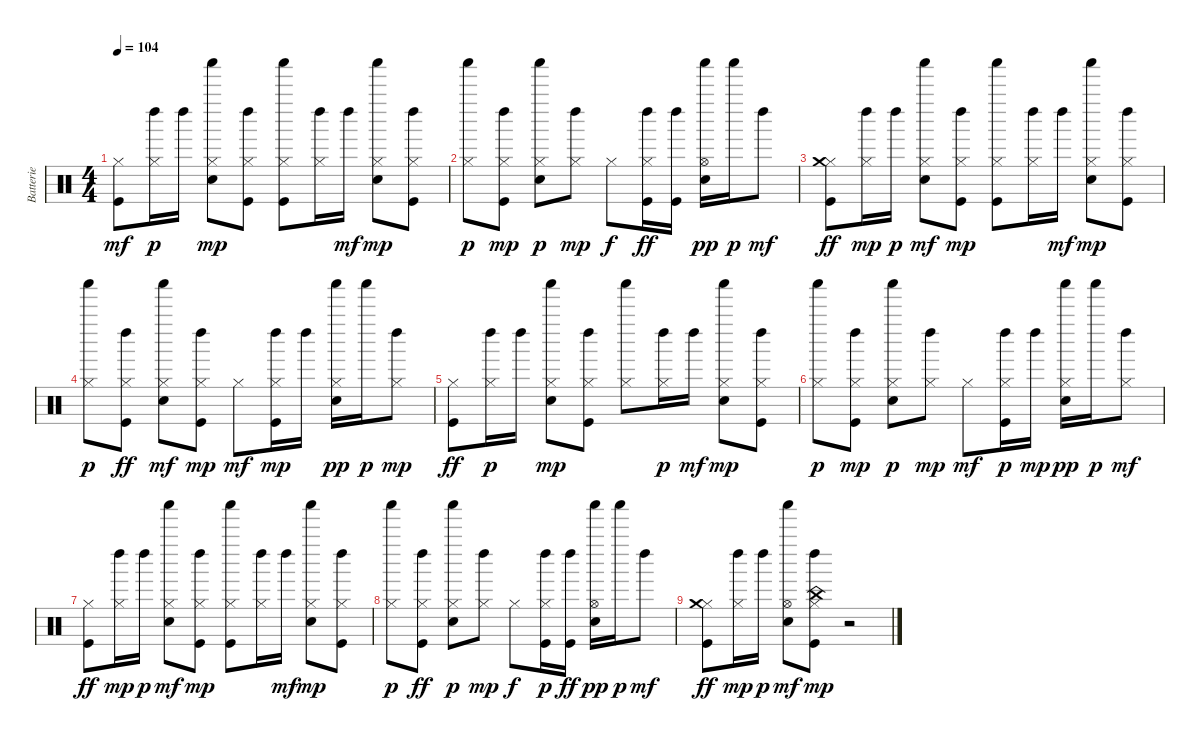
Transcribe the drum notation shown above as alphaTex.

\track ("Batterie" "Batterie") {instrument percussion}
\staff {score}
\articulation defaults
\ts (4 4)
\tempo 104
\clef neutral
\ks c
("Kick (hit)" "Hi-Hat (closed)").8{dy mf} ("Left Maraca (hit)" "Hi-Hat (closed)").16{dy p} "Left Maraca (hit)".16 ("Electric Snare (hit)" "Hi-Hat (closed)" "Shaker (hit)").8{dy mp} ("Hi-Hat (closed)" "Left Maraca (hit)" "Kick (hit)").8 ("Kick (hit)" "Shaker (hit)" "Hi-Hat (closed)").8 ("Hi-Hat (closed)" "Left Maraca (hit)").16 "Left Maraca (hit)".16{dy mf} ("Hi-Hat (closed)" "Shaker (hit)" "Electric Snare (hit)").8{dy mp} ("Hi-Hat (closed)" "Kick (hit)" "Left Maraca (hit)").8 |
("Hi-Hat (closed)" "Shaker (hit)").8{dy p} ("Hi-Hat (closed)" "Kick (hit)" "Left Maraca (hit)").8{dy mp} ("Electric Snare (hit)" "Hi-Hat (closed)" "Shaker (hit)").8{dy p} ("Hi-Hat (closed)" "Left Maraca (hit)").8{dy mp} "Hi-Hat (closed)".8{dy f} ("Left Maraca (hit)" "Hi-Hat (closed)" "Kick (hit)").16{dy ff} ("Left Maraca (hit)" "Kick (hit)").16 ("Hi-Hat (open)" "Electric Snare (hit)" "Shaker (hit)").16{dy pp} "Shaker (hit)".16{dy p} "Left Maraca (hit)".8{dy mf} |
("Hi-Hat (closed)" "Crash medium (hit)" "Kick (hit)").8{dy ff} ("Hi-Hat (closed)" "Left Maraca (hit)").16{dy mp} "Left Maraca (hit)".16{dy p} ("Electric Snare (hit)" "Shaker (hit)" "Hi-Hat (closed)").8{dy mf} ("Kick (hit)" "Left Maraca (hit)" "Hi-Hat (closed)").8{dy mp} ("Hi-Hat (closed)" "Kick (hit)" "Shaker (hit)").8 ("Hi-Hat (closed)" "Left Maraca (hit)").16 "Left Maraca (hit)".16{dy mf} ("Electric Snare (hit)" "Hi-Hat (closed)" "Shaker (hit)").8{dy mp} ("Left Maraca (hit)" "Hi-Hat (closed)" "Kick (hit)").8 |
("Hi-Hat (closed)" "Shaker (hit)").8{dy p} ("Left Maraca (hit)" "Hi-Hat (closed)" "Kick (hit)").8{dy ff} ("Shaker (hit)" "Hi-Hat (closed)" "Electric Snare (hit)").8{dy mf} ("Hi-Hat (closed)" "Kick (hit)" "Left Maraca (hit)").8{dy mp} "Hi-Hat (closed)".8{dy mf} ("Hi-Hat (closed)" "Kick (hit)" "Left Maraca (hit)").16{dy mp} "Left Maraca (hit)".16 ("Electric Snare (hit)" "Hi-Hat (closed)" "Shaker (hit)").16{dy pp} "Shaker (hit)".16{dy p} ("Left Maraca (hit)" "Hi-Hat (closed)").8{dy mp} |
("Hi-Hat (closed)" "Kick (hit)").8{dy ff} ("Left Maraca (hit)" "Hi-Hat (closed)").16{dy p} "Left Maraca (hit)".16 ("Hi-Hat (closed)" "Electric Snare (hit)" "Shaker (hit)").8{dy mp} ("Kick (hit)" "Hi-Hat (closed)" "Left Maraca (hit)").8 ("Hi-Hat (closed)" "Shaker (hit)").8 ("Left Maraca (hit)" "Hi-Hat (closed)").16{dy p} "Left Maraca (hit)".16{dy mf} ("Hi-Hat (closed)" "Shaker (hit)" "Electric Snare (hit)").8{dy mp} ("Left Maraca (hit)" "Kick (hit)" "Hi-Hat (closed)").8 |
("Hi-Hat (closed)" "Shaker (hit)").8{dy p} ("Hi-Hat (closed)" "Kick (hit)" "Left Maraca (hit)").8{dy mp} ("Electric Snare (hit)" "Hi-Hat (closed)" "Shaker (hit)").8{dy p} ("Hi-Hat (closed)" "Left Maraca (hit)").8{dy mp} "Hi-Hat (closed)".8{dy mf} ("Left Maraca (hit)" "Hi-Hat (closed)" "Kick (hit)").16{dy p} "Left Maraca (hit)".16{dy mp} ("Hi-Hat (closed)" "Electric Snare (hit)" "Shaker (hit)").16{dy pp} "Shaker (hit)".16{dy p} ("Hi-Hat (closed)" "Left Maraca (hit)").8{dy mf} |
("Hi-Hat (closed)" "Kick (hit)").8{dy ff} ("Hi-Hat (closed)" "Left Maraca (hit)").16{dy mp} "Left Maraca (hit)".16{dy p} ("Shaker (hit)" "Electric Snare (hit)" "Hi-Hat (closed)").8{dy mf} ("Kick (hit)" "Left Maraca (hit)" "Hi-Hat (closed)").8{dy mp} ("Kick (hit)" "Hi-Hat (closed)" "Shaker (hit)").8 ("Hi-Hat (closed)" "Left Maraca (hit)").16 "Left Maraca (hit)".16{dy mf} ("Hi-Hat (closed)" "Shaker (hit)" "Electric Snare (hit)").8{dy mp} ("Left Maraca (hit)" "Kick (hit)" "Hi-Hat (closed)").8 |
("Hi-Hat (closed)" "Shaker (hit)").8{dy p} ("Left Maraca (hit)" "Hi-Hat (closed)" "Kick (hit)").8{dy ff} ("Electric Snare (hit)" "Hi-Hat (closed)" "Shaker (hit)").8{dy p} ("Hi-Hat (closed)" "Left Maraca (hit)").8{dy mp} "Hi-Hat (closed)".8{dy f} ("Left Maraca (hit)" "Kick (hit)" "Hi-Hat (closed)").16{dy p} ("Left Maraca (hit)" "Kick (hit)").16{dy ff} ("Hi-Hat (open)" "Electric Snare (hit)" "Shaker (hit)").16{dy pp} "Shaker (hit)".16{dy p} "Left Maraca (hit)".8{dy mf} |
("Hi-Hat (closed)" "Crash medium (hit)" "Kick (hit)").8{dy ff} ("Hi-Hat (closed)" "Left Maraca (hit)").16{dy mp} "Left Maraca (hit)".16{dy p} ("Shaker (hit)" "Electric Snare (hit)" "Hi-Hat (open)").8{dy mf} ("Kick (hit)" "China (hit)" "Hi-Hat (closed)" "Left Maraca (hit)").8{dy mp} r.2
